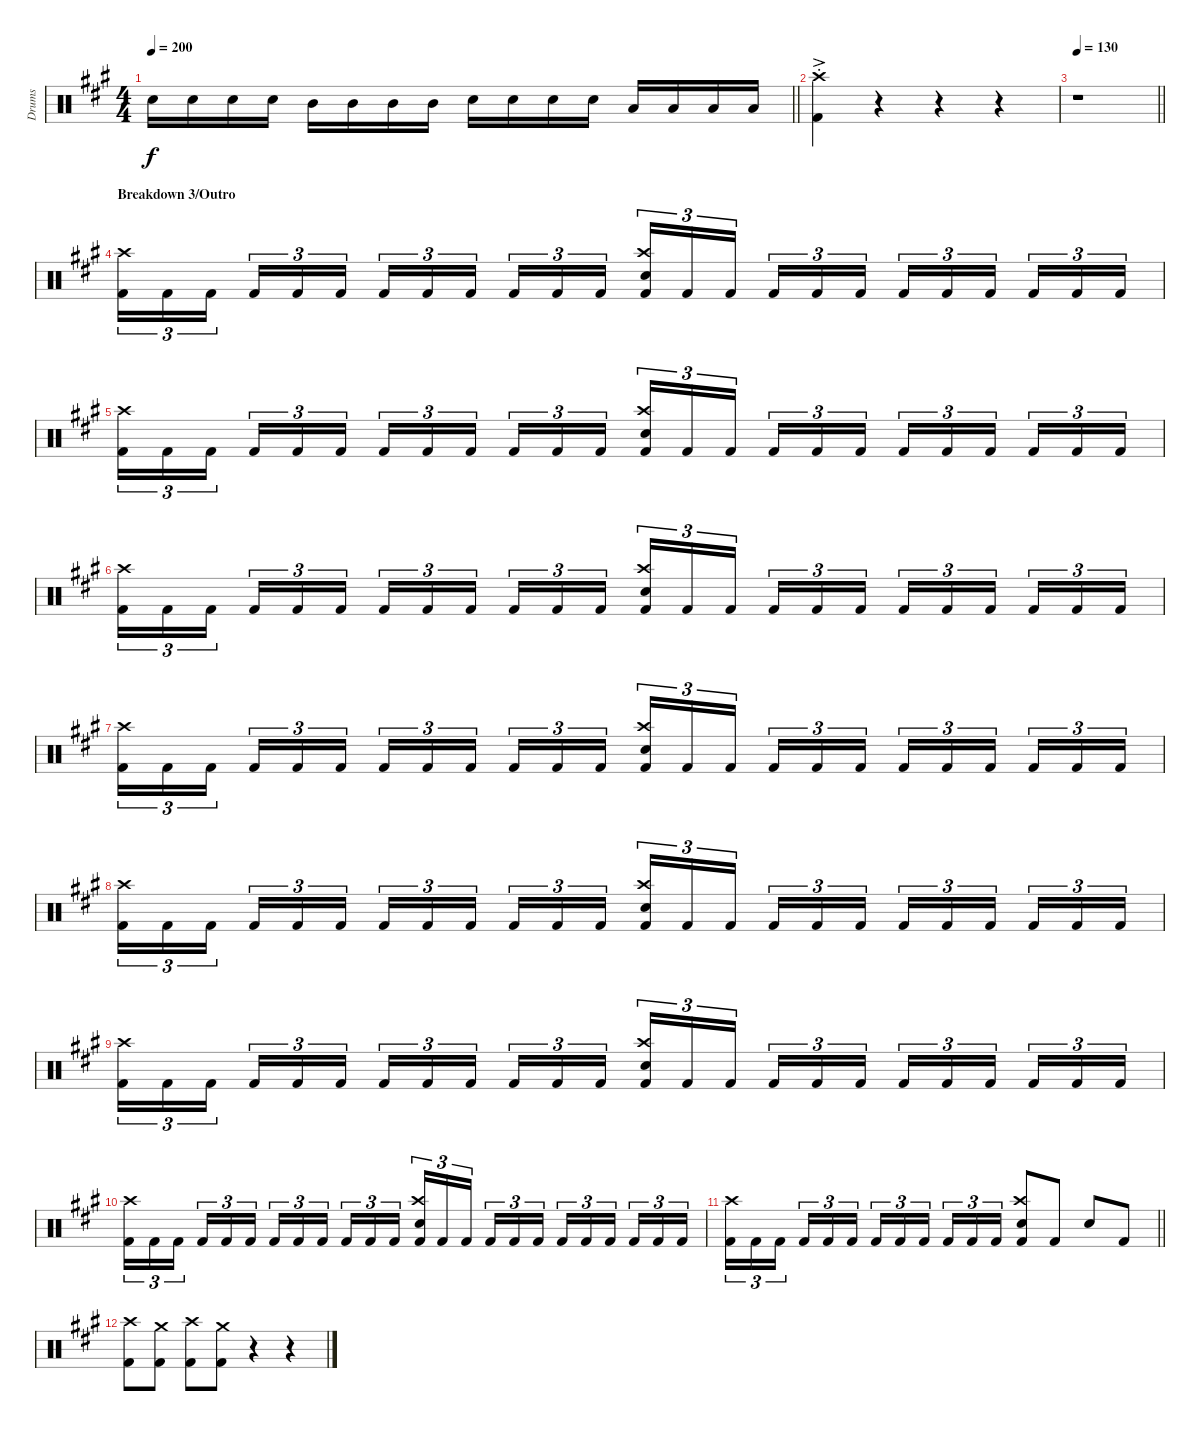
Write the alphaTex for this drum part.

\track ("Drums" "Drums") {instrument percussion}
\staff {score}
\articulation defaults
\ts (4 4)
\tempo 200
\clef neutral
\barLineRight lightlight
\ks a "Snare (hit) 2".16{dy f} "Snare (hit) 2".16 "Snare (hit) 2".16 "Snare (hit) 2".16 "Mid Tom (hit)".16 "Mid Tom (hit)".16 "Mid Tom (hit)".16 "Mid Tom (hit)".16 "Snare (hit) 2".16 "Snare (hit) 2".16 "Snare (hit) 2".16 "Snare (hit) 2".16 "Low Tom (hit)".16 "Low Tom (hit)".16 "Low Tom (hit)".16 "Low Tom (hit)".16
|
("Crash high (hit)"{ac st} "Kick (hit) 2").4 r.4 r.4 r.4 |
\tempo 130
\barLineRight lightlight
r.1 |
\section ("" "Breakdown 3/Outro")
("Crash high (hit)" "Kick (hit) 2").16{tu (3 2)} "Kick (hit) 2".16{tu (3 2)} "Kick (hit) 2".16{tu (3 2)} "Kick (hit) 2".16{tu (3 2)} "Kick (hit) 2".16{tu (3 2)} "Kick (hit) 2".16{tu (3 2)} "Kick (hit) 2".16{tu (3 2)} "Kick (hit) 2".16{tu (3 2)} "Kick (hit) 2".16{tu (3 2)} "Kick (hit) 2".16{tu (3 2)} "Kick (hit) 2".16{tu (3 2)} "Kick (hit) 2".16{tu (3 2)} ("Crash high (hit)" "Snare (hit) 2" "Kick (hit) 2").16{tu (3 2)} "Kick (hit) 2".16{tu (3 2)} "Kick (hit) 2".16{tu (3 2)} "Kick (hit) 2".16{tu (3 2)} "Kick (hit) 2".16{tu (3 2)} "Kick (hit) 2".16{tu (3 2)} "Kick (hit) 2".16{tu (3 2)} "Kick (hit) 2".16{tu (3 2)} "Kick (hit) 2".16{tu (3 2)} "Kick (hit) 2".16{tu (3 2)} "Kick (hit) 2".16{tu (3 2)} "Kick (hit) 2".16{tu (3 2)} |
("Crash high (hit)" "Kick (hit) 2").16{tu (3 2)} "Kick (hit) 2".16{tu (3 2)} "Kick (hit) 2".16{tu (3 2)} "Kick (hit) 2".16{tu (3 2)} "Kick (hit) 2".16{tu (3 2)} "Kick (hit) 2".16{tu (3 2)} "Kick (hit) 2".16{tu (3 2)} "Kick (hit) 2".16{tu (3 2)} "Kick (hit) 2".16{tu (3 2)} "Kick (hit) 2".16{tu (3 2)} "Kick (hit) 2".16{tu (3 2)} "Kick (hit) 2".16{tu (3 2)} ("Crash high (hit)" "Snare (hit) 2" "Kick (hit) 2").16{tu (3 2)} "Kick (hit) 2".16{tu (3 2)} "Kick (hit) 2".16{tu (3 2)} "Kick (hit) 2".16{tu (3 2)} "Kick (hit) 2".16{tu (3 2)} "Kick (hit) 2".16{tu (3 2)} "Kick (hit) 2".16{tu (3 2)} "Kick (hit) 2".16{tu (3 2)} "Kick (hit) 2".16{tu (3 2)} "Kick (hit) 2".16{tu (3 2)} "Kick (hit) 2".16{tu (3 2)} "Kick (hit) 2".16{tu (3 2)} |
("Crash high (hit)" "Kick (hit) 2").16{tu (3 2)} "Kick (hit) 2".16{tu (3 2)} "Kick (hit) 2".16{tu (3 2)} "Kick (hit) 2".16{tu (3 2)} "Kick (hit) 2".16{tu (3 2)} "Kick (hit) 2".16{tu (3 2)} "Kick (hit) 2".16{tu (3 2)} "Kick (hit) 2".16{tu (3 2)} "Kick (hit) 2".16{tu (3 2)} "Kick (hit) 2".16{tu (3 2)} "Kick (hit) 2".16{tu (3 2)} "Kick (hit) 2".16{tu (3 2)} ("Crash high (hit)" "Snare (hit) 2" "Kick (hit) 2").16{tu (3 2)} "Kick (hit) 2".16{tu (3 2)} "Kick (hit) 2".16{tu (3 2)} "Kick (hit) 2".16{tu (3 2)} "Kick (hit) 2".16{tu (3 2)} "Kick (hit) 2".16{tu (3 2)} "Kick (hit) 2".16{tu (3 2)} "Kick (hit) 2".16{tu (3 2)} "Kick (hit) 2".16{tu (3 2)} "Kick (hit) 2".16{tu (3 2)} "Kick (hit) 2".16{tu (3 2)} "Kick (hit) 2".16{tu (3 2)} |
("Crash high (hit)" "Kick (hit) 2").16{tu (3 2)} "Kick (hit) 2".16{tu (3 2)} "Kick (hit) 2".16{tu (3 2)} "Kick (hit) 2".16{tu (3 2)} "Kick (hit) 2".16{tu (3 2)} "Kick (hit) 2".16{tu (3 2)} "Kick (hit) 2".16{tu (3 2)} "Kick (hit) 2".16{tu (3 2)} "Kick (hit) 2".16{tu (3 2)} "Kick (hit) 2".16{tu (3 2)} "Kick (hit) 2".16{tu (3 2)} "Kick (hit) 2".16{tu (3 2)} ("Crash high (hit)" "Snare (hit) 2" "Kick (hit) 2").16{tu (3 2)} "Kick (hit) 2".16{tu (3 2)} "Kick (hit) 2".16{tu (3 2)} "Kick (hit) 2".16{tu (3 2)} "Kick (hit) 2".16{tu (3 2)} "Kick (hit) 2".16{tu (3 2)} "Kick (hit) 2".16{tu (3 2)} "Kick (hit) 2".16{tu (3 2)} "Kick (hit) 2".16{tu (3 2)} "Kick (hit) 2".16{tu (3 2)} "Kick (hit) 2".16{tu (3 2)} "Kick (hit) 2".16{tu (3 2)} |
("Crash high (hit)" "Kick (hit) 2").16{tu (3 2)} "Kick (hit) 2".16{tu (3 2)} "Kick (hit) 2".16{tu (3 2)} "Kick (hit) 2".16{tu (3 2)} "Kick (hit) 2".16{tu (3 2)} "Kick (hit) 2".16{tu (3 2)} "Kick (hit) 2".16{tu (3 2)} "Kick (hit) 2".16{tu (3 2)} "Kick (hit) 2".16{tu (3 2)} "Kick (hit) 2".16{tu (3 2)} "Kick (hit) 2".16{tu (3 2)} "Kick (hit) 2".16{tu (3 2)} ("Crash high (hit)" "Snare (hit) 2" "Kick (hit) 2").16{tu (3 2)} "Kick (hit) 2".16{tu (3 2)} "Kick (hit) 2".16{tu (3 2)} "Kick (hit) 2".16{tu (3 2)} "Kick (hit) 2".16{tu (3 2)} "Kick (hit) 2".16{tu (3 2)} "Kick (hit) 2".16{tu (3 2)} "Kick (hit) 2".16{tu (3 2)} "Kick (hit) 2".16{tu (3 2)} "Kick (hit) 2".16{tu (3 2)} "Kick (hit) 2".16{tu (3 2)} "Kick (hit) 2".16{tu (3 2)} |
("Crash high (hit)" "Kick (hit) 2").16{tu (3 2)} "Kick (hit) 2".16{tu (3 2)} "Kick (hit) 2".16{tu (3 2)} "Kick (hit) 2".16{tu (3 2)} "Kick (hit) 2".16{tu (3 2)} "Kick (hit) 2".16{tu (3 2)} "Kick (hit) 2".16{tu (3 2)} "Kick (hit) 2".16{tu (3 2)} "Kick (hit) 2".16{tu (3 2)} "Kick (hit) 2".16{tu (3 2)} "Kick (hit) 2".16{tu (3 2)} "Kick (hit) 2".16{tu (3 2)} ("Crash high (hit)" "Snare (hit) 2" "Kick (hit) 2").16{tu (3 2)} "Kick (hit) 2".16{tu (3 2)} "Kick (hit) 2".16{tu (3 2)} "Kick (hit) 2".16{tu (3 2)} "Kick (hit) 2".16{tu (3 2)} "Kick (hit) 2".16{tu (3 2)} "Kick (hit) 2".16{tu (3 2)} "Kick (hit) 2".16{tu (3 2)} "Kick (hit) 2".16{tu (3 2)} "Kick (hit) 2".16{tu (3 2)} "Kick (hit) 2".16{tu (3 2)} "Kick (hit) 2".16{tu (3 2)} |
("Crash high (hit)" "Kick (hit) 2").16{tu (3 2)} "Kick (hit) 2".16{tu (3 2)} "Kick (hit) 2".16{tu (3 2)} "Kick (hit) 2".16{tu (3 2)} "Kick (hit) 2".16{tu (3 2)} "Kick (hit) 2".16{tu (3 2)} "Kick (hit) 2".16{tu (3 2)} "Kick (hit) 2".16{tu (3 2)} "Kick (hit) 2".16{tu (3 2)} "Kick (hit) 2".16{tu (3 2)} "Kick (hit) 2".16{tu (3 2)} "Kick (hit) 2".16{tu (3 2)} ("Crash high (hit)" "Snare (hit) 2" "Kick (hit) 2").16{tu (3 2)} "Kick (hit) 2".16{tu (3 2)} "Kick (hit) 2".16{tu (3 2)} "Kick (hit) 2".16{tu (3 2)} "Kick (hit) 2".16{tu (3 2)} "Kick (hit) 2".16{tu (3 2)} "Kick (hit) 2".16{tu (3 2)} "Kick (hit) 2".16{tu (3 2)} "Kick (hit) 2".16{tu (3 2)} "Kick (hit) 2".16{tu (3 2)} "Kick (hit) 2".16{tu (3 2)} "Kick (hit) 2".16{tu (3 2)} |
\barLineRight lightlight
("Crash high (hit)" "Kick (hit) 2").16{tu (3 2)} "Kick (hit) 2".16{tu (3 2)} "Kick (hit) 2".16{tu (3 2)} "Kick (hit) 2".16{tu (3 2)} "Kick (hit) 2".16{tu (3 2)} "Kick (hit) 2".16{tu (3 2)} "Kick (hit) 2".16{tu (3 2)} "Kick (hit) 2".16{tu (3 2)} "Kick (hit) 2".16{tu (3 2)} "Kick (hit) 2".16{tu (3 2)} "Kick (hit) 2".16{tu (3 2)} "Kick (hit) 2".16{tu (3 2)} ("Crash high (hit)" "Snare (hit) 2" "Kick (hit) 2").8 "Kick (hit) 2".8 "Snare (hit) 2".8 "Kick (hit) 2".8 |
("Crash high (hit)" "Kick (hit) 2").8 ("Crash medium (hit)" "Kick (hit) 2").8 ("Crash high (hit)" "Kick (hit) 2").8 ("Crash medium (hit)" "Kick (hit) 2").8 r.4 r.4
